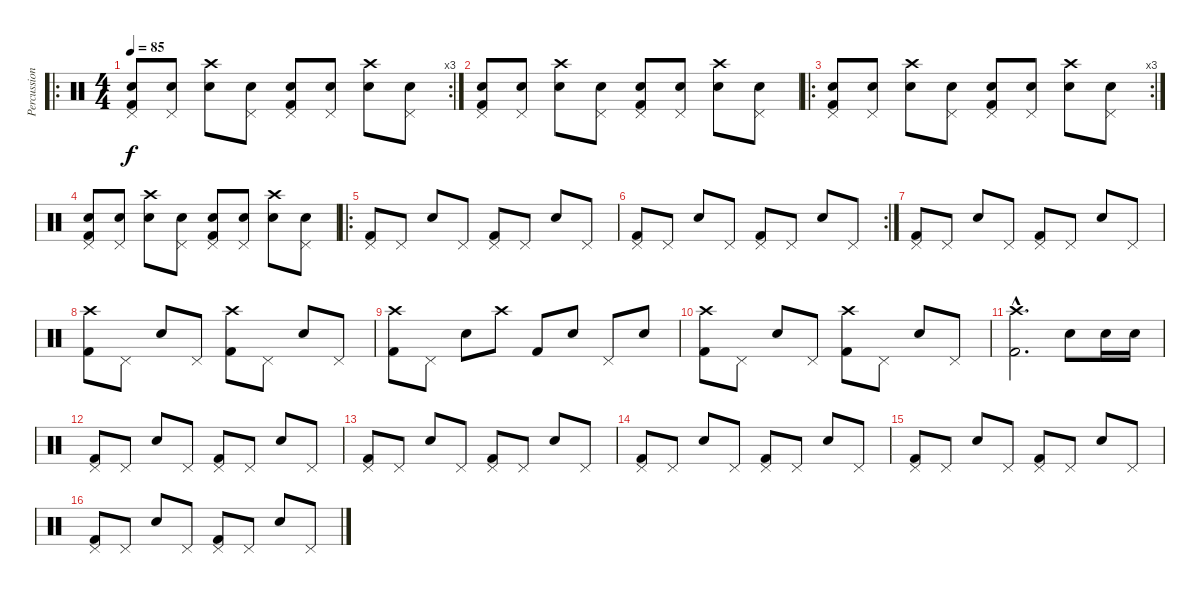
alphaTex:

\track ("Percussion" "Percussion") {instrument percussion}
\staff {score}
\articulation defaults
\ro
\rc 3
\ts (4 4)
\tempo 85
\clef neutral
\ks c
("Pedal Hi-Hat (hit)" "Snare (hit) 2" "Kick (hit) 2").8{dy f} ("Pedal Hi-Hat (hit)" "Snare (hit) 2").8 ("Snare (hit) 2" "Crash high (hit)").8 ("Pedal Hi-Hat (hit)" "Snare (hit) 2").8 ("Pedal Hi-Hat (hit)" "Snare (hit) 2" "Kick (hit) 2").8 ("Pedal Hi-Hat (hit)" "Snare (hit) 2").8 ("Snare (hit) 2" "Crash high (hit)").8 ("Pedal Hi-Hat (hit)" "Snare (hit) 2").8 |
("Pedal Hi-Hat (hit)" "Snare (hit) 2" "Kick (hit) 2").8 ("Pedal Hi-Hat (hit)" "Snare (hit) 2").8 ("Snare (hit) 2" "Crash high (hit)").8 ("Pedal Hi-Hat (hit)" "Snare (hit) 2").8 ("Pedal Hi-Hat (hit)" "Snare (hit) 2" "Kick (hit) 2").8 ("Pedal Hi-Hat (hit)" "Snare (hit) 2").8 ("Snare (hit) 2" "Crash high (hit)").8 ("Pedal Hi-Hat (hit)" "Snare (hit) 2").8 |
\ro
\rc 3
("Pedal Hi-Hat (hit)" "Snare (hit) 2" "Kick (hit) 2").8 ("Pedal Hi-Hat (hit)" "Snare (hit) 2").8 ("Snare (hit) 2" "Crash high (hit)").8 ("Pedal Hi-Hat (hit)" "Snare (hit) 2").8 ("Pedal Hi-Hat (hit)" "Snare (hit) 2" "Kick (hit) 2").8 ("Pedal Hi-Hat (hit)" "Snare (hit) 2").8 ("Snare (hit) 2" "Crash high (hit)").8 ("Pedal Hi-Hat (hit)" "Snare (hit) 2").8 |
("Pedal Hi-Hat (hit)" "Snare (hit) 2" "Kick (hit) 2").8 ("Pedal Hi-Hat (hit)" "Snare (hit) 2").8 ("Snare (hit) 2" "Crash high (hit)").8 ("Pedal Hi-Hat (hit)" "Snare (hit) 2").8 ("Pedal Hi-Hat (hit)" "Snare (hit) 2" "Kick (hit) 2").8 ("Pedal Hi-Hat (hit)" "Snare (hit) 2").8 ("Snare (hit) 2" "Crash high (hit)").8 ("Pedal Hi-Hat (hit)" "Snare (hit) 2").8 |
\ro
("Pedal Hi-Hat (hit)" "Kick (hit) 2").8 "Pedal Hi-Hat (hit)".8 "Snare (hit) 2".8 "Pedal Hi-Hat (hit)".8 ("Pedal Hi-Hat (hit)" "Kick (hit) 2").8 "Pedal Hi-Hat (hit)".8 "Snare (hit) 2".8 "Pedal Hi-Hat (hit)".8 |
\rc 2
("Pedal Hi-Hat (hit)" "Kick (hit) 2").8 "Pedal Hi-Hat (hit)".8 "Snare (hit) 2".8 "Pedal Hi-Hat (hit)".8 ("Pedal Hi-Hat (hit)" "Kick (hit) 2").8 "Pedal Hi-Hat (hit)".8 "Snare (hit) 2".8 "Pedal Hi-Hat (hit)".8 |
("Pedal Hi-Hat (hit)" "Kick (hit) 2").8 "Pedal Hi-Hat (hit)".8 "Snare (hit) 2".8 "Pedal Hi-Hat (hit)".8 ("Pedal Hi-Hat (hit)" "Kick (hit) 2").8 "Pedal Hi-Hat (hit)".8 "Snare (hit) 2".8 "Pedal Hi-Hat (hit)".8 |
("Crash high (hit)" "Kick (hit) 2").8 "Pedal Hi-Hat (hit)".8 "Snare (hit) 2".8 "Pedal Hi-Hat (hit)".8 ("Crash high (hit)" "Kick (hit) 2").8 "Pedal Hi-Hat (hit)".8 "Snare (hit) 2".8 "Pedal Hi-Hat (hit)".8 |
("Crash high (hit)" "Kick (hit) 2").8 "Pedal Hi-Hat (hit)".8 "Snare (hit) 2".8 "Crash high (hit)".8 "Kick (hit) 2".8 "Snare (hit) 2".8 "Pedal Hi-Hat (hit)".8 "Snare (hit) 2".8 |
("Crash high (hit)" "Kick (hit) 2").8 "Pedal Hi-Hat (hit)".8 "Snare (hit) 2".8 "Pedal Hi-Hat (hit)".8 ("Crash high (hit)" "Kick (hit) 2").8 "Pedal Hi-Hat (hit)".8 "Snare (hit) 2".8 "Pedal Hi-Hat (hit)".8 |
("Crash high (hit)"{hac} "Kick (hit) 2"{hac}).2{d} "Snare (hit) 2".8 "Snare (hit) 2".16 "Snare (hit) 2".16 |
("Pedal Hi-Hat (hit)" "Kick (hit) 2").8 "Pedal Hi-Hat (hit)".8 "Snare (hit) 2".8 "Pedal Hi-Hat (hit)".8 ("Pedal Hi-Hat (hit)" "Kick (hit) 2").8 "Pedal Hi-Hat (hit)".8 "Snare (hit) 2".8 "Pedal Hi-Hat (hit)".8 |
("Pedal Hi-Hat (hit)" "Kick (hit) 2").8 "Pedal Hi-Hat (hit)".8 "Snare (hit) 2".8 "Pedal Hi-Hat (hit)".8 ("Pedal Hi-Hat (hit)" "Kick (hit) 2").8 "Pedal Hi-Hat (hit)".8 "Snare (hit) 2".8 "Pedal Hi-Hat (hit)".8 |
("Pedal Hi-Hat (hit)" "Kick (hit) 2").8 "Pedal Hi-Hat (hit)".8 "Snare (hit) 2".8 "Pedal Hi-Hat (hit)".8 ("Pedal Hi-Hat (hit)" "Kick (hit) 2").8 "Pedal Hi-Hat (hit)".8 "Snare (hit) 2".8 "Pedal Hi-Hat (hit)".8 |
("Pedal Hi-Hat (hit)" "Kick (hit) 2").8 "Pedal Hi-Hat (hit)".8 "Snare (hit) 2".8 "Pedal Hi-Hat (hit)".8 ("Pedal Hi-Hat (hit)" "Kick (hit) 2").8 "Pedal Hi-Hat (hit)".8 "Snare (hit) 2".8 "Pedal Hi-Hat (hit)".8 |
("Pedal Hi-Hat (hit)" "Kick (hit) 2").8 "Pedal Hi-Hat (hit)".8 "Snare (hit) 2".8 "Pedal Hi-Hat (hit)".8 ("Pedal Hi-Hat (hit)" "Kick (hit) 2").8 "Pedal Hi-Hat (hit)".8 "Snare (hit) 2".8 "Pedal Hi-Hat (hit)".8
